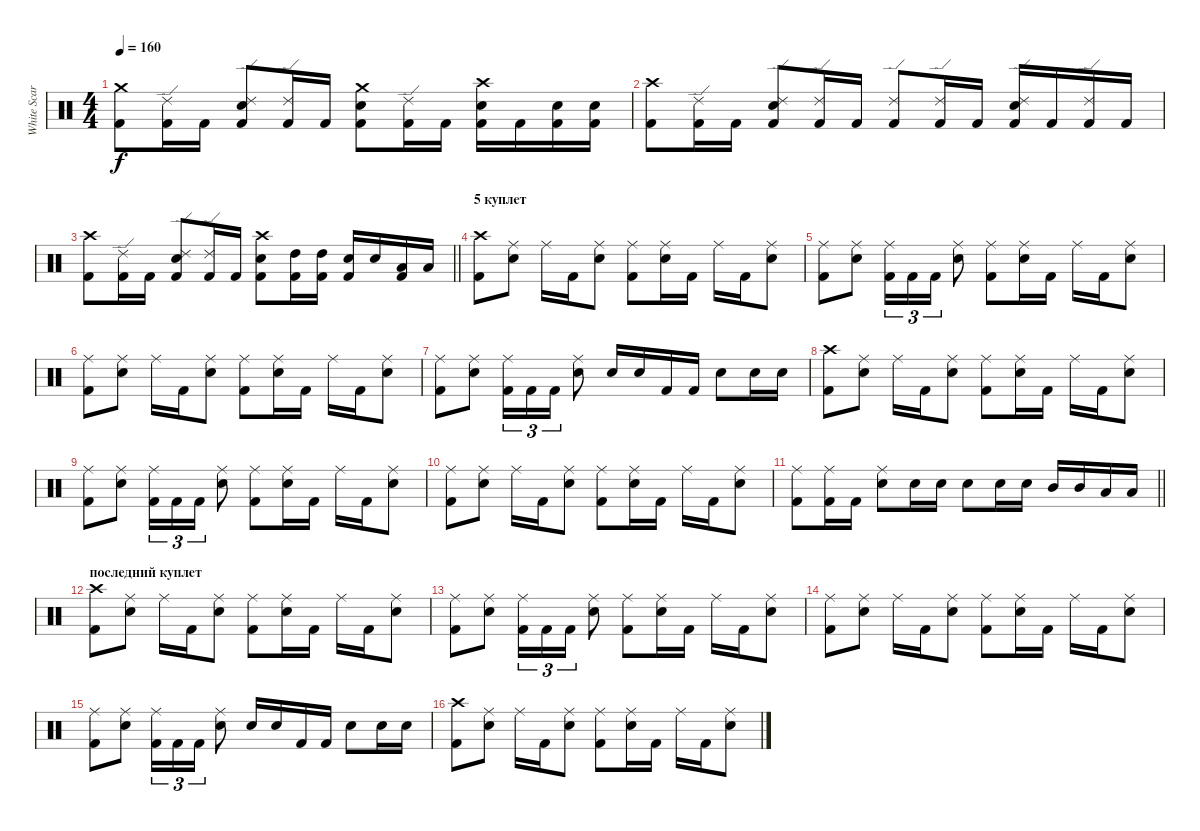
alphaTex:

\track ("White Scar" "White Scar") {instrument percussion}
\staff {score}
\articulation defaults
\ts (4 4)
\tempo 160
\clef neutral
\ks c
("Crash medium (hit)" "Kick (hit) 2").8{dy f} ("Ride (edge) 2" "Kick (hit) 2").16 "Kick (hit) 2".16 ("Ride (edge) 2" "Snare (hit) 2" "Kick (hit) 2").8 ("Ride (edge) 2" "Kick (hit) 2").16 "Kick (hit) 2".16 ("Crash medium (hit)" "Snare (hit) 2" "Kick (hit) 2").8 ("Ride (edge) 2" "Kick (hit) 2").16 "Kick (hit) 2".16 ("Crash high (hit)" "Snare (hit) 2" "Kick (hit) 2").16 "Kick (hit) 2".16 ("Snare (hit) 2" "Kick (hit) 2").16 ("Snare (hit) 2" "Kick (hit) 2").16 |
("Crash high (hit)" "Kick (hit) 2").8 ("Ride (edge) 2" "Kick (hit) 2").16 "Kick (hit) 2".16 ("Ride (edge) 2" "Snare (hit) 2" "Kick (hit) 2").8 ("Ride (edge) 2" "Kick (hit) 2").16 "Kick (hit) 2".16 ("Ride (edge) 2" "Kick (hit) 2").8 ("Ride (edge) 2" "Kick (hit) 2").16 "Kick (hit) 2".16 ("Ride (edge) 2" "Snare (hit) 2" "Kick (hit) 2").16 "Kick (hit) 2".16 ("Ride (edge) 2" "Kick (hit) 2").16 "Kick (hit) 2".16 |
\barLineRight lightlight
("Crash high (hit)" "Kick (hit) 2").8 ("Ride (edge) 2" "Kick (hit) 2").16 "Kick (hit) 2".16 ("Ride (edge) 2" "Snare (hit) 2" "Kick (hit) 2").8 ("Ride (edge) 2" "Kick (hit) 2").16 "Kick (hit) 2".16 ("Crash high (hit)" "Snare (hit) 2" "Kick (hit) 2").8 ("High Tom (hit)" "Kick (hit) 2").16 ("High Tom (hit)" "Kick (hit) 2").16 ("Snare (hit) 2" "Kick (hit) 2").16 "Snare (hit) 2".16 ("Low Tom (hit)" "Kick (hit) 2").16 "Low Tom (hit)".16 |
\section ("" "5 куплет")
("Crash high (hit)" "Kick (hit) 2").8 ("Ride (middle)" "Snare (hit) 2").8 "Ride (middle)".16 "Kick (hit) 2".16 ("Ride (middle)" "Snare (hit) 2").8 ("Ride (middle)" "Kick (hit) 2").8 ("Ride (middle)" "Snare (hit) 2").16 "Kick (hit) 2".16 "Ride (middle)".16 "Kick (hit) 2".16 ("Ride (middle)" "Snare (hit) 2").8 |
("Ride (middle)" "Kick (hit) 2").8 ("Ride (middle)" "Snare (hit) 2").8 ("Ride (middle)" "Kick (hit) 2").16{tu (3 2)} "Kick (hit) 2".16{tu (3 2)} "Kick (hit) 2".16{tu (3 2)} ("Ride (middle)" "Snare (hit) 2").8 ("Ride (middle)" "Kick (hit) 2").8 ("Ride (middle)" "Snare (hit) 2").16 "Kick (hit) 2".16 "Ride (middle)".16 "Kick (hit) 2".16 ("Ride (middle)" "Snare (hit) 2").8 |
("Ride (middle)" "Kick (hit) 2").8 ("Ride (middle)" "Snare (hit) 2").8 "Ride (middle)".16 "Kick (hit) 2".16 ("Ride (middle)" "Snare (hit) 2").8 ("Ride (middle)" "Kick (hit) 2").8 ("Ride (middle)" "Snare (hit) 2").16 "Kick (hit) 2".16 "Ride (middle)".16 "Kick (hit) 2".16 ("Ride (middle)" "Snare (hit) 2").8 |
("Ride (middle)" "Kick (hit) 2").8 ("Ride (middle)" "Snare (hit) 2").8 ("Ride (middle)" "Kick (hit) 2").16{tu (3 2)} "Kick (hit) 2".16{tu (3 2)} "Kick (hit) 2".16{tu (3 2)} ("Ride (middle)" "Snare (hit) 2").8 "Snare (hit) 2".16 "Snare (hit) 2".16 "Kick (hit) 2".16 "Kick (hit) 2".16 "Snare (hit) 2".8 "Snare (hit) 2".16 "Snare (hit) 2".16 |
("Crash high (hit)" "Kick (hit) 2").8 ("Ride (middle)" "Snare (hit) 2").8 "Ride (middle)".16 "Kick (hit) 2".16 ("Ride (middle)" "Snare (hit) 2").8 ("Ride (middle)" "Kick (hit) 2").8 ("Ride (middle)" "Snare (hit) 2").16 "Kick (hit) 2".16 "Ride (middle)".16 "Kick (hit) 2".16 ("Ride (middle)" "Snare (hit) 2").8 |
("Ride (middle)" "Kick (hit) 2").8 ("Ride (middle)" "Snare (hit) 2").8 ("Ride (middle)" "Kick (hit) 2").16{tu (3 2)} "Kick (hit) 2".16{tu (3 2)} "Kick (hit) 2".16{tu (3 2)} ("Ride (middle)" "Snare (hit) 2").8 ("Ride (middle)" "Kick (hit) 2").8 ("Ride (middle)" "Snare (hit) 2").16 "Kick (hit) 2".16 "Ride (middle)".16 "Kick (hit) 2".16 ("Ride (middle)" "Snare (hit) 2").8 |
("Ride (middle)" "Kick (hit) 2").8 ("Ride (middle)" "Snare (hit) 2").8 "Ride (middle)".16 "Kick (hit) 2".16 ("Ride (middle)" "Snare (hit) 2").8 ("Ride (middle)" "Kick (hit) 2").8 ("Ride (middle)" "Snare (hit) 2").16 "Kick (hit) 2".16 "Ride (middle)".16 "Kick (hit) 2".16 ("Ride (middle)" "Snare (hit) 2").8 |
\barLineRight lightlight
("Ride (middle)" "Kick (hit) 2").8 ("Ride (middle)" "Kick (hit) 2").16 "Kick (hit) 2".16 ("Ride (middle)" "Snare (hit) 2").8 "Snare (hit) 2".16 "Snare (hit) 2".16 "Snare (hit) 2".8 "Snare (hit) 2".16 "Snare (hit) 2".16 "Mid Tom (hit)".16 "Mid Tom (hit)".16 "Low Tom (hit)".16 "Low Tom (hit)".16 |
\section ("" "последний куплет")
("Crash high (hit)" "Kick (hit) 2").8 ("Ride (middle)" "Snare (hit) 2").8 "Ride (middle)".16 "Kick (hit) 2".16 ("Ride (middle)" "Snare (hit) 2").8 ("Ride (middle)" "Kick (hit) 2").8 ("Ride (middle)" "Snare (hit) 2").16 "Kick (hit) 2".16 "Ride (middle)".16 "Kick (hit) 2".16 ("Ride (middle)" "Snare (hit) 2").8 |
("Ride (middle)" "Kick (hit) 2").8 ("Ride (middle)" "Snare (hit) 2").8 ("Ride (middle)" "Kick (hit) 2").16{tu (3 2)} "Kick (hit) 2".16{tu (3 2)} "Kick (hit) 2".16{tu (3 2)} ("Ride (middle)" "Snare (hit) 2").8 ("Ride (middle)" "Kick (hit) 2").8 ("Ride (middle)" "Snare (hit) 2").16 "Kick (hit) 2".16 "Ride (middle)".16 "Kick (hit) 2".16 ("Ride (middle)" "Snare (hit) 2").8 |
("Ride (middle)" "Kick (hit) 2").8 ("Ride (middle)" "Snare (hit) 2").8 "Ride (middle)".16 "Kick (hit) 2".16 ("Ride (middle)" "Snare (hit) 2").8 ("Ride (middle)" "Kick (hit) 2").8 ("Ride (middle)" "Snare (hit) 2").16 "Kick (hit) 2".16 "Ride (middle)".16 "Kick (hit) 2".16 ("Ride (middle)" "Snare (hit) 2").8 |
("Ride (middle)" "Kick (hit) 2").8 ("Ride (middle)" "Snare (hit) 2").8 ("Ride (middle)" "Kick (hit) 2").16{tu (3 2)} "Kick (hit) 2".16{tu (3 2)} "Kick (hit) 2".16{tu (3 2)} ("Ride (middle)" "Snare (hit) 2").8 "Snare (hit) 2".16 "Snare (hit) 2".16 "Kick (hit) 2".16 "Kick (hit) 2".16 "Snare (hit) 2".8 "Snare (hit) 2".16 "Snare (hit) 2".16 |
("Crash high (hit)" "Kick (hit) 2").8 ("Ride (middle)" "Snare (hit) 2").8 "Ride (middle)".16 "Kick (hit) 2".16 ("Ride (middle)" "Snare (hit) 2").8 ("Ride (middle)" "Kick (hit) 2").8 ("Ride (middle)" "Snare (hit) 2").16 "Kick (hit) 2".16 "Ride (middle)".16 "Kick (hit) 2".16 ("Ride (middle)" "Snare (hit) 2").8
